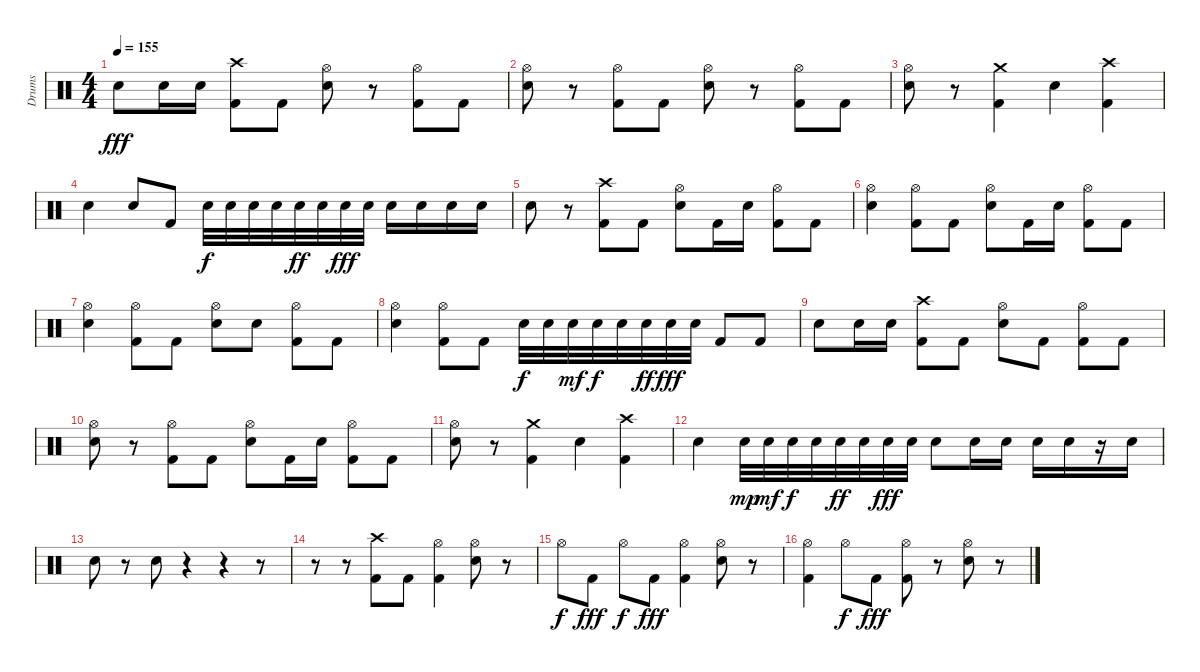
\track ("Drums" "Drums") {instrument percussion}
\staff {score}
\articulation defaults
\ts (4 4)
\tempo 155
\clef neutral
\ks c "Snare (hit) 2".8{dy fff} "Snare (hit) 2".16 "Snare (hit) 2".16
("Crash high (hit)" "Kick (hit) 2").8 "Kick (hit) 2".8 ("Hi-Hat (open)" "Snare (hit) 2").8 r.8 ("Hi-Hat (open)" "Kick (hit) 2").8 "Kick (hit) 2".8 |
("Hi-Hat (open)" "Snare (hit) 2").8 r.8 ("Hi-Hat (open)" "Kick (hit) 2").8 "Kick (hit) 2".8 ("Hi-Hat (open)" "Snare (hit) 2").8 r.8 ("Hi-Hat (open)" "Kick (hit) 2").8 "Kick (hit) 2".8 |
("Hi-Hat (open)" "Snare (hit) 2").8 r.8 ("Crash medium (hit)" "Kick (hit) 2").4 "Snare (hit) 2".4 ("Crash high (hit)" "Kick (hit) 2").4 |
"Snare (hit) 2".4 "Snare (hit) 2".8 "Kick (hit) 2".8 "Snare (hit) 2".32{dy f} "Snare (hit) 2".32 "Snare (hit) 2".32 "Snare (hit) 2".32 "Snare (hit) 2".32{dy ff} "Snare (hit) 2".32 "Snare (hit) 2".32{dy fff} "Snare (hit) 2".32 "Snare (hit) 2".16 "Snare (hit) 2".16 "Snare (hit) 2".16 "Snare (hit) 2".16 |
"Snare (hit) 2".8 r.8 ("Crash high (hit)" "Kick (hit) 2").8 "Kick (hit) 2".8 ("Hi-Hat (open)" "Snare (hit) 2").8 "Kick (hit) 2".16 "Snare (hit) 2".16 ("Hi-Hat (open)" "Kick (hit) 2").8 "Kick (hit) 2".8 |
("Hi-Hat (open)" "Snare (hit) 2").4 ("Hi-Hat (open)" "Kick (hit) 2").8 "Kick (hit) 2".8 ("Hi-Hat (open)" "Snare (hit) 2").8 "Kick (hit) 2".16 "Snare (hit) 2".16 ("Hi-Hat (open)" "Kick (hit) 2").8 "Kick (hit) 2".8 |
("Hi-Hat (open)" "Snare (hit) 2").4 ("Hi-Hat (open)" "Kick (hit) 2").8 "Kick (hit) 2".8 ("Hi-Hat (open)" "Snare (hit) 2").8 "Snare (hit) 2".8 ("Hi-Hat (open)" "Kick (hit) 2").8 "Kick (hit) 2".8 |
("Hi-Hat (open)" "Snare (hit) 2").4 ("Hi-Hat (open)" "Kick (hit) 2").8 "Kick (hit) 2".8 "Snare (hit) 2".32{dy f} "Snare (hit) 2".32 "Snare (hit) 2".32{dy mf} "Snare (hit) 2".32{dy f} "Snare (hit) 2".32 "Snare (hit) 2".32{dy ff} "Snare (hit) 2".32{dy fff} "Snare (hit) 2".32 "Kick (hit) 2".8 "Kick (hit) 2".8 |
"Snare (hit) 2".8 "Snare (hit) 2".16 "Snare (hit) 2".16 ("Crash high (hit)" "Kick (hit) 2").8 "Kick (hit) 2".8 ("Hi-Hat (open)" "Snare (hit) 2").8 "Kick (hit) 2".8 ("Hi-Hat (open)" "Kick (hit) 2").8 "Kick (hit) 2".8 |
("Hi-Hat (open)" "Snare (hit) 2").8 r.8 ("Hi-Hat (open)" "Kick (hit) 2").8 "Kick (hit) 2".8 ("Hi-Hat (open)" "Snare (hit) 2").8 "Kick (hit) 2".16 "Snare (hit) 2".16 ("Hi-Hat (open)" "Kick (hit) 2").8 "Kick (hit) 2".8 |
("Hi-Hat (open)" "Snare (hit) 2").8 r.8 ("Crash medium (hit)" "Kick (hit) 2").4 "Snare (hit) 2".4 ("Crash high (hit)" "Kick (hit) 2").4 |
"Snare (hit) 2".4 "Snare (hit) 2".32{dy mp} "Snare (hit) 2".32{dy mf} "Snare (hit) 2".32{dy f} "Snare (hit) 2".32 "Snare (hit) 2".32{dy ff} "Snare (hit) 2".32 "Snare (hit) 2".32{dy fff} "Snare (hit) 2".32 "Snare (hit) 2".8 "Snare (hit) 2".16 "Snare (hit) 2".16 "Snare (hit) 2".16 "Snare (hit) 2".16 r.16 "Snare (hit) 2".16 |
"Snare (hit) 2".8 r.8 "Snare (hit) 2".8 r.4 r.4 r.8 |
r.8 r.8 ("Crash high (hit)" "Kick (hit) 2").8 "Kick (hit) 2".8 ("Hi-Hat (open)" "Kick (hit) 2").4 ("Hi-Hat (open)" "Snare (hit) 2").8 r.8 |
"Hi-Hat (open)".8{dy f} "Kick (hit) 2".8{dy fff} "Hi-Hat (open)".8{dy f} "Kick (hit) 2".8{dy fff} ("Hi-Hat (open)" "Kick (hit) 2").4 ("Hi-Hat (open)" "Snare (hit) 2").8 r.8 |
("Hi-Hat (open)" "Kick (hit) 2").4 "Hi-Hat (open)".8{dy f} "Kick (hit) 2".8{dy fff} ("Hi-Hat (open)" "Kick (hit) 2").8 r.8 ("Hi-Hat (open)" "Snare (hit) 2").8 r.8
